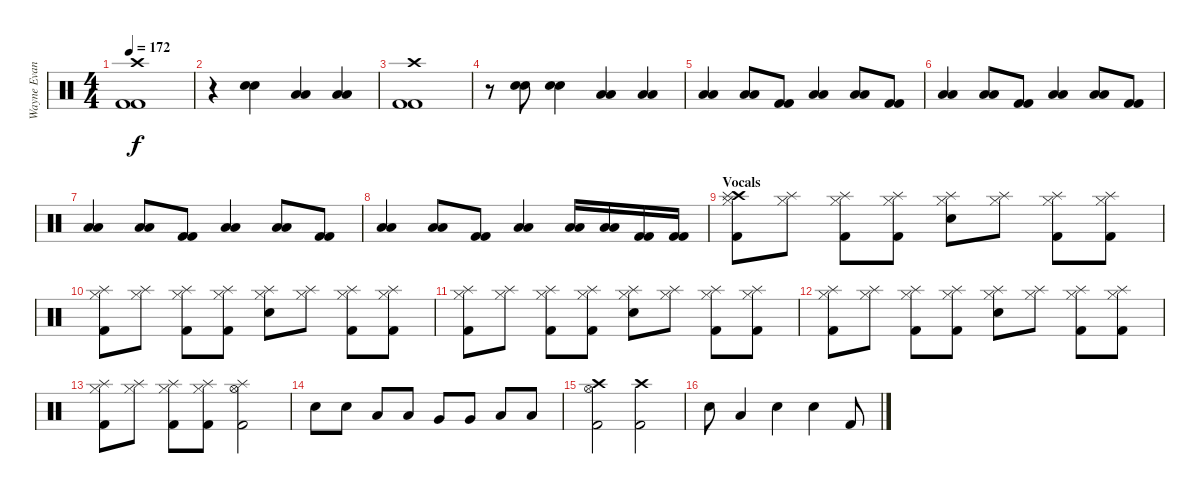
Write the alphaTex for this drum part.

\track ("Wayne Evans  " "Wayne Evan") {instrument percussion}
\staff {score}
\articulation defaults
\ts (4 4)
\tempo 172
\clef neutral
\ks c
("Crash high (hit)" "Kick (hit) 2" "Kick (hit) 2").1{dy f} |
r.4 ("Snare (hit) 2" "Snare (hit) 2").4 ("Low Tom (hit)" "Low Tom (hit)").4 ("Low Tom (hit)" "Low Tom (hit)").4 |
("Crash high (hit)" "Kick (hit) 2" "Kick (hit) 2").1 |
r.8 ("Snare (hit) 2" "Snare (hit) 2").8 ("Snare (hit) 2" "Snare (hit) 2").4 ("Low Tom (hit)" "Low Tom (hit)").4 ("Low Tom (hit)" "Low Tom (hit)").4 |
("Low Tom (hit)" "Low Tom (hit)").4 ("Low Tom (hit)" "Low Tom (hit)").8 ("Kick (hit) 2" "Kick (hit) 2").8 ("Low Tom (hit)" "Low Tom (hit)").4 ("Low Tom (hit)" "Low Tom (hit)").8 ("Kick (hit) 2" "Kick (hit) 2").8 |
("Low Tom (hit)" "Low Tom (hit)").4 ("Low Tom (hit)" "Low Tom (hit)").8 ("Kick (hit) 2" "Kick (hit) 2").8 ("Low Tom (hit)" "Low Tom (hit)").4 ("Low Tom (hit)" "Low Tom (hit)").8 ("Kick (hit) 2" "Kick (hit) 2").8 |
("Low Tom (hit)" "Low Tom (hit)").4 ("Low Tom (hit)" "Low Tom (hit)").8 ("Kick (hit) 2" "Kick (hit) 2").8 ("Low Tom (hit)" "Low Tom (hit)").4 ("Low Tom (hit)" "Low Tom (hit)").8 ("Kick (hit) 2" "Kick (hit) 2").8 |
("Low Tom (hit)" "Low Tom (hit)").4 ("Low Tom (hit)" "Low Tom (hit)").8 ("Kick (hit) 2" "Kick (hit) 2").8 ("Low Tom (hit)" "Low Tom (hit)").4 ("Low Tom (hit)" "Low Tom (hit)").16 ("Low Tom (hit)" "Low Tom (hit)").16 ("Kick (hit) 2" "Kick (hit) 2").16 ("Kick (hit) 2" "Kick (hit) 2").16 |
\section ("" "Vocals")
("Crash high (hit)" "Splash (hit)" "Hi-Hat (closed)" "Kick (hit) 2").8 ("Splash (hit)" "Hi-Hat (closed)").8 ("Splash (hit)" "Hi-Hat (closed)" "Kick (hit) 2").8 ("Splash (hit)" "Hi-Hat (closed)" "Kick (hit) 2").8 ("Splash (hit)" "Hi-Hat (closed)" "Electric Snare (hit)").8 ("Splash (hit)" "Hi-Hat (closed)").8 ("Splash (hit)" "Hi-Hat (closed)" "Kick (hit) 2").8 ("Splash (hit)" "Hi-Hat (closed)" "Kick (hit) 2").8 |
("Splash (hit)" "Hi-Hat (closed)" "Kick (hit) 2").8 ("Splash (hit)" "Hi-Hat (closed)").8 ("Splash (hit)" "Hi-Hat (closed)" "Kick (hit) 2").8 ("Splash (hit)" "Hi-Hat (closed)" "Kick (hit) 2").8 ("Splash (hit)" "Hi-Hat (closed)" "Electric Snare (hit)").8 ("Splash (hit)" "Hi-Hat (closed)").8 ("Splash (hit)" "Hi-Hat (closed)" "Kick (hit) 2").8 ("Splash (hit)" "Hi-Hat (closed)" "Kick (hit) 2").8 |
("Splash (hit)" "Hi-Hat (closed)" "Kick (hit) 2").8 ("Splash (hit)" "Hi-Hat (closed)").8 ("Splash (hit)" "Hi-Hat (closed)" "Kick (hit) 2").8 ("Splash (hit)" "Hi-Hat (closed)" "Kick (hit) 2").8 ("Splash (hit)" "Hi-Hat (closed)" "Electric Snare (hit)").8 ("Splash (hit)" "Hi-Hat (closed)").8 ("Splash (hit)" "Hi-Hat (closed)" "Kick (hit) 2").8 ("Splash (hit)" "Hi-Hat (closed)" "Kick (hit) 2").8 |
("Splash (hit)" "Hi-Hat (closed)" "Kick (hit) 2").8 ("Splash (hit)" "Hi-Hat (closed)").8 ("Splash (hit)" "Hi-Hat (closed)" "Kick (hit) 2").8 ("Splash (hit)" "Hi-Hat (closed)" "Kick (hit) 2").8 ("Splash (hit)" "Hi-Hat (closed)" "Electric Snare (hit)").8 ("Splash (hit)" "Hi-Hat (closed)").8 ("Splash (hit)" "Hi-Hat (closed)" "Kick (hit) 2").8 ("Splash (hit)" "Hi-Hat (closed)" "Kick (hit) 2").8 |
("Splash (hit)" "Hi-Hat (closed)" "Kick (hit) 2").8 ("Splash (hit)" "Hi-Hat (closed)").8 ("Splash (hit)" "Hi-Hat (closed)" "Kick (hit) 2").8 ("Splash (hit)" "Hi-Hat (closed)" "Kick (hit) 2").8 ("Splash (hit)" "Hi-Hat (open)" "Kick (hit) 2").2 |
"Electric Snare (hit)".8 "Electric Snare (hit)".8 "Low Tom (hit)".8 "Low Tom (hit)".8 "Very Low Tom (hit)".8 "Very Low Tom (hit)".8 "Low Floor Tom (hit)".8 "Low Floor Tom (hit)".8 |
("Crash high (hit)" "Hi-Hat (open)" "Kick (hit) 2").2 ("Crash high (hit)" "Kick (hit) 2").2 |
"Electric Snare (hit)".8 "Low Tom (hit)".4 "Electric Snare (hit)".4 "Electric Snare (hit)".4 "Kick (hit) 2".8
